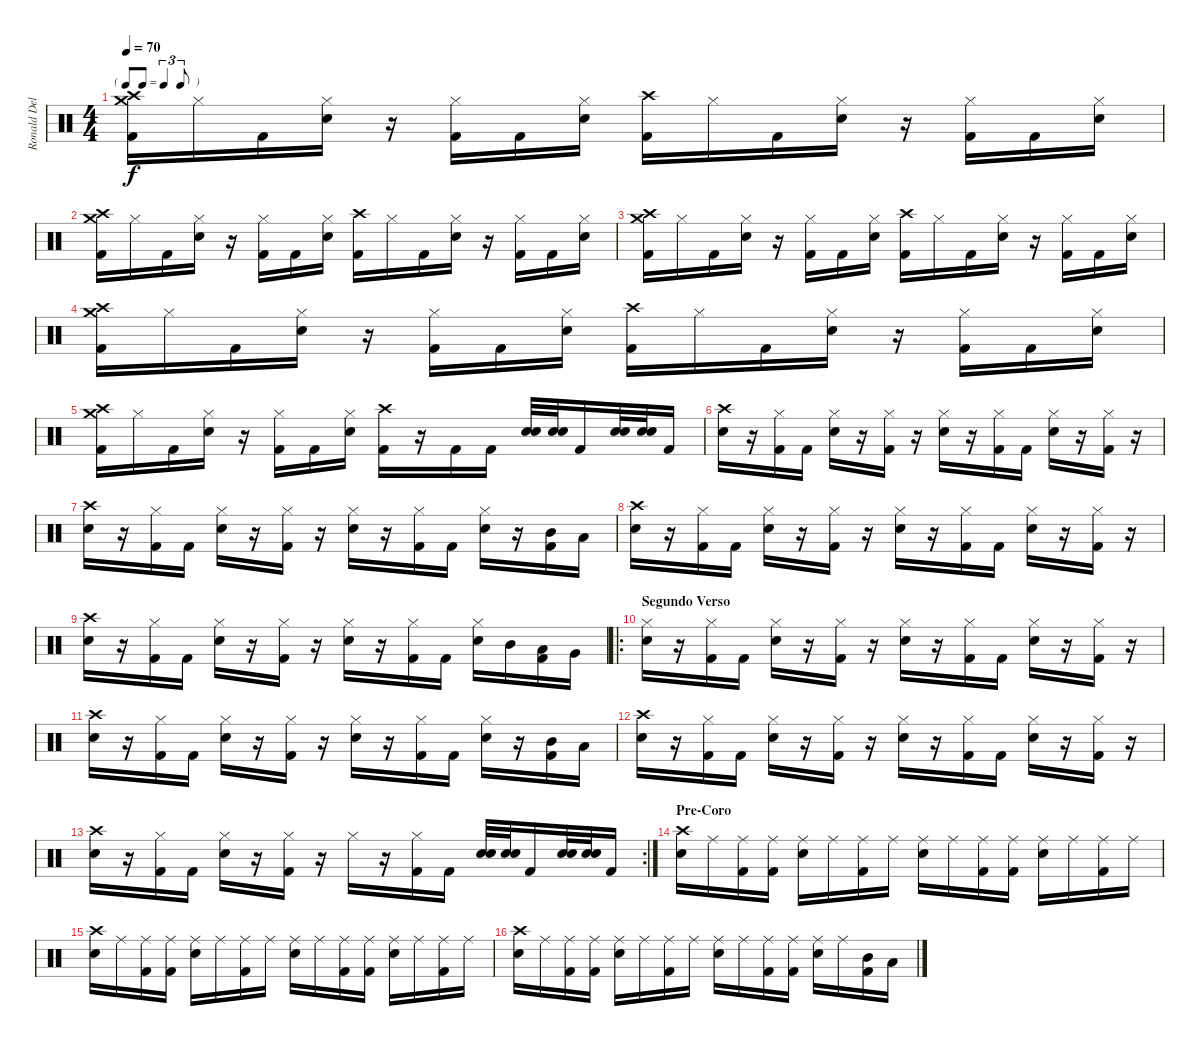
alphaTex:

\track ("Ronald Del Aguila (Bateria)" "Ronald Del") {instrument percussion}
\staff {score}
\articulation defaults
\ts (4 4)
\tf triplet8th
\tempo 70
\clef neutral
\ks c
("Crash medium (hit)" "Crash high (hit)" "Kick (hit) 2").16{dy f} "Hi-Hat (closed)".16 "Kick (hit) 2".16 ("Hi-Hat (closed)" "Snare (hit) 2").16 r.16 ("Hi-Hat (closed)" "Kick (hit) 2").16 "Kick (hit) 2".16 ("Hi-Hat (closed)" "Snare (hit) 2").16 ("Crash high (hit)" "Kick (hit) 2").16 "Hi-Hat (closed)".16 "Kick (hit) 2".16 ("Hi-Hat (closed)" "Snare (hit) 2").16 r.16 ("Hi-Hat (closed)" "Kick (hit) 2").16 "Kick (hit) 2".16 ("Hi-Hat (closed)" "Snare (hit) 2").16 |
("Crash medium (hit)" "Crash high (hit)" "Kick (hit) 2").16 "Hi-Hat (closed)".16 "Kick (hit) 2".16 ("Hi-Hat (closed)" "Snare (hit) 2").16 r.16 ("Hi-Hat (closed)" "Kick (hit) 2").16 "Kick (hit) 2".16 ("Hi-Hat (closed)" "Snare (hit) 2").16 ("Crash high (hit)" "Kick (hit) 2").16 "Hi-Hat (closed)".16 "Kick (hit) 2".16 ("Hi-Hat (closed)" "Snare (hit) 2").16 r.16 ("Hi-Hat (closed)" "Kick (hit) 2").16 "Kick (hit) 2".16 ("Hi-Hat (closed)" "Snare (hit) 2").16 |
("Crash medium (hit)" "Crash high (hit)" "Kick (hit) 2").16 "Hi-Hat (closed)".16 "Kick (hit) 2".16 ("Hi-Hat (closed)" "Snare (hit) 2").16 r.16 ("Hi-Hat (closed)" "Kick (hit) 2").16 "Kick (hit) 2".16 ("Hi-Hat (closed)" "Snare (hit) 2").16 ("Crash high (hit)" "Kick (hit) 2").16 "Hi-Hat (closed)".16 "Kick (hit) 2".16 ("Hi-Hat (closed)" "Snare (hit) 2").16 r.16 ("Hi-Hat (closed)" "Kick (hit) 2").16 "Kick (hit) 2".16 ("Hi-Hat (closed)" "Snare (hit) 2").16 |
("Crash medium (hit)" "Crash high (hit)" "Kick (hit) 2").16 "Hi-Hat (closed)".16 "Kick (hit) 2".16 ("Hi-Hat (closed)" "Snare (hit) 2").16 r.16 ("Hi-Hat (closed)" "Kick (hit) 2").16 "Kick (hit) 2".16 ("Hi-Hat (closed)" "Snare (hit) 2").16 ("Crash high (hit)" "Kick (hit) 2").16 "Hi-Hat (closed)".16 "Kick (hit) 2".16 ("Hi-Hat (closed)" "Snare (hit) 2").16 r.16 ("Hi-Hat (closed)" "Kick (hit) 2").16 "Kick (hit) 2".16 ("Hi-Hat (closed)" "Snare (hit) 2").16 |
("Crash high (hit)" "Kick (hit) 2" "Crash medium (hit)").16 "Hi-Hat (closed)".16 "Kick (hit) 2".16 ("Hi-Hat (closed)" "Snare (hit) 2").16 r.16 ("Hi-Hat (closed)" "Kick (hit) 2").16 "Kick (hit) 2".16 ("Hi-Hat (closed)" "Snare (hit) 2").16 ("Crash high (hit)" "Kick (hit) 2").16 r.16 "Kick (hit) 2".16 "Kick (hit) 2".16 ("Snare (hit) 2" "Snare (hit) 2").32 ("Snare (hit) 2" "Snare (hit) 2").32 "Kick (hit) 2".16 ("Snare (hit) 2" "Snare (hit) 2").32 ("Snare (hit) 2" "Snare (hit) 2").32 "Kick (hit) 2".16 |
("Crash high (hit)" "Snare (hit) 2").16 r.16 ("Hi-Hat (closed)" "Kick (hit) 2").16 "Kick (hit) 2".16 ("Hi-Hat (closed)" "Snare (hit) 2").16 r.16 ("Hi-Hat (closed)" "Kick (hit) 2").16 r.16 ("Hi-Hat (closed)" "Snare (hit) 2").16 r.16 ("Hi-Hat (closed)" "Kick (hit) 2").16 "Kick (hit) 2".16 ("Hi-Hat (closed)" "Snare (hit) 2").16 r.16 ("Hi-Hat (closed)" "Kick (hit) 2").16 r.16 |
("Crash high (hit)" "Snare (hit) 2").16 r.16 ("Hi-Hat (closed)" "Kick (hit) 2").16 "Kick (hit) 2".16 ("Hi-Hat (closed)" "Snare (hit) 2").16 r.16 ("Hi-Hat (closed)" "Kick (hit) 2").16 r.16 ("Hi-Hat (closed)" "Snare (hit) 2").16 r.16 ("Hi-Hat (closed)" "Kick (hit) 2").16 "Kick (hit) 2".16 ("Hi-Hat (closed)" "Snare (hit) 2").16 r.16 ("Mid Tom (hit)" "Kick (hit) 2").16 "Low Tom (hit)".16 |
("Crash high (hit)" "Snare (hit) 2").16 r.16 ("Hi-Hat (closed)" "Kick (hit) 2").16 "Kick (hit) 2".16 ("Hi-Hat (closed)" "Snare (hit) 2").16 r.16 ("Hi-Hat (closed)" "Kick (hit) 2").16 r.16 ("Hi-Hat (closed)" "Snare (hit) 2").16 r.16 ("Hi-Hat (closed)" "Kick (hit) 2").16 "Kick (hit) 2".16 ("Hi-Hat (closed)" "Snare (hit) 2").16 r.16 ("Hi-Hat (closed)" "Kick (hit) 2").16 r.16 |
("Crash high (hit)" "Snare (hit) 2").16 r.16 ("Hi-Hat (closed)" "Kick (hit) 2").16 "Kick (hit) 2".16 ("Hi-Hat (closed)" "Snare (hit) 2").16 r.16 ("Hi-Hat (closed)" "Kick (hit) 2").16 r.16 ("Hi-Hat (closed)" "Snare (hit) 2").16 r.16 ("Hi-Hat (closed)" "Kick (hit) 2").16 "Kick (hit) 2".16 ("Hi-Hat (closed)" "Snare (hit) 2").16 "Mid Tom (hit)".16 ("Low Tom (hit)" "Kick (hit) 2").16 "Very Low Tom (hit)".16 |
\ro
\section ("" "Segundo Verso")
("Hi-Hat (closed)" "Snare (hit) 2").16 r.16 ("Hi-Hat (closed)" "Kick (hit) 2").16 "Kick (hit) 2".16 ("Hi-Hat (closed)" "Snare (hit) 2").16 r.16 ("Hi-Hat (closed)" "Kick (hit) 2").16 r.16 ("Hi-Hat (closed)" "Snare (hit) 2").16 r.16 ("Hi-Hat (closed)" "Kick (hit) 2").16 "Kick (hit) 2".16 ("Hi-Hat (closed)" "Snare (hit) 2").16 r.16 ("Hi-Hat (closed)" "Kick (hit) 2").16 r.16 |
("Crash high (hit)" "Snare (hit) 2").16 r.16 ("Hi-Hat (closed)" "Kick (hit) 2").16 "Kick (hit) 2".16 ("Hi-Hat (closed)" "Snare (hit) 2").16 r.16 ("Hi-Hat (closed)" "Kick (hit) 2").16 r.16 ("Hi-Hat (closed)" "Snare (hit) 2").16 r.16 ("Hi-Hat (closed)" "Kick (hit) 2").16 "Kick (hit) 2".16 ("Hi-Hat (closed)" "Snare (hit) 2").16 r.16 ("Mid Tom (hit)" "Kick (hit) 2").16 "Low Tom (hit)".16 |
("Crash high (hit)" "Snare (hit) 2").16 r.16 ("Hi-Hat (closed)" "Kick (hit) 2").16 "Kick (hit) 2".16 ("Hi-Hat (closed)" "Snare (hit) 2").16 r.16 ("Hi-Hat (closed)" "Kick (hit) 2").16 r.16 ("Hi-Hat (closed)" "Snare (hit) 2").16 r.16 ("Hi-Hat (closed)" "Kick (hit) 2").16 "Kick (hit) 2".16 ("Hi-Hat (closed)" "Snare (hit) 2").16 r.16 ("Hi-Hat (closed)" "Kick (hit) 2").16 r.16 |
\rc 2
("Crash high (hit)" "Snare (hit) 2").16 r.16 ("Hi-Hat (closed)" "Kick (hit) 2").16 "Kick (hit) 2".16 ("Hi-Hat (closed)" "Snare (hit) 2").16 r.16 ("Hi-Hat (closed)" "Kick (hit) 2").16 r.16 "Hi-Hat (closed)".16 r.16 ("Hi-Hat (closed)" "Kick (hit) 2").16 "Kick (hit) 2".16 ("Snare (hit) 2" "Snare (hit) 2").32 ("Snare (hit) 2" "Snare (hit) 2").32 "Kick (hit) 2".16 ("Snare (hit) 2" "Snare (hit) 2").32 ("Snare (hit) 2" "Snare (hit) 2").32 "Kick (hit) 2".16 |
\section ("" "Pre-Coro")
("Crash high (hit)" "Snare (hit) 2").16 "Ride (middle)".16 ("Ride (middle)" "Kick (hit) 2").16 ("Ride (middle)" "Kick (hit) 2").16 ("Ride (middle)" "Snare (hit) 2").16 "Ride (middle)".16 ("Ride (middle)" "Kick (hit) 2").16 "Ride (middle)".16 ("Ride (middle)" "Snare (hit) 2").16 "Ride (middle)".16 ("Ride (middle)" "Kick (hit) 2").16 ("Ride (middle)" "Kick (hit) 2").16 ("Ride (middle)" "Snare (hit) 2").16 "Ride (middle)".16 ("Ride (middle)" "Kick (hit) 2").16 "Ride (middle)".16 |
("Crash high (hit)" "Snare (hit) 2").16 "Ride (middle)".16 ("Ride (middle)" "Kick (hit) 2").16 ("Ride (middle)" "Kick (hit) 2").16 ("Ride (middle)" "Snare (hit) 2").16 "Ride (middle)".16 ("Ride (middle)" "Kick (hit) 2").16 "Ride (middle)".16 ("Ride (middle)" "Snare (hit) 2").16 "Ride (middle)".16 ("Ride (middle)" "Kick (hit) 2").16 ("Ride (middle)" "Kick (hit) 2").16 ("Ride (middle)" "Snare (hit) 2").16 "Ride (middle)".16 ("Ride (middle)" "Kick (hit) 2").16 "Ride (middle)".16 |
("Crash high (hit)" "Snare (hit) 2").16 "Ride (middle)".16 ("Ride (middle)" "Kick (hit) 2").16 ("Ride (middle)" "Kick (hit) 2").16 ("Ride (middle)" "Snare (hit) 2").16 "Ride (middle)".16 ("Ride (middle)" "Kick (hit) 2").16 "Ride (middle)".16 ("Ride (middle)" "Snare (hit) 2").16 "Ride (middle)".16 ("Ride (middle)" "Kick (hit) 2").16 ("Ride (middle)" "Kick (hit) 2").16 ("Ride (middle)" "Snare (hit) 2").16 "Ride (middle)".16 ("Mid Tom (hit)" "Kick (hit) 2").16 "Low Tom (hit)".16
